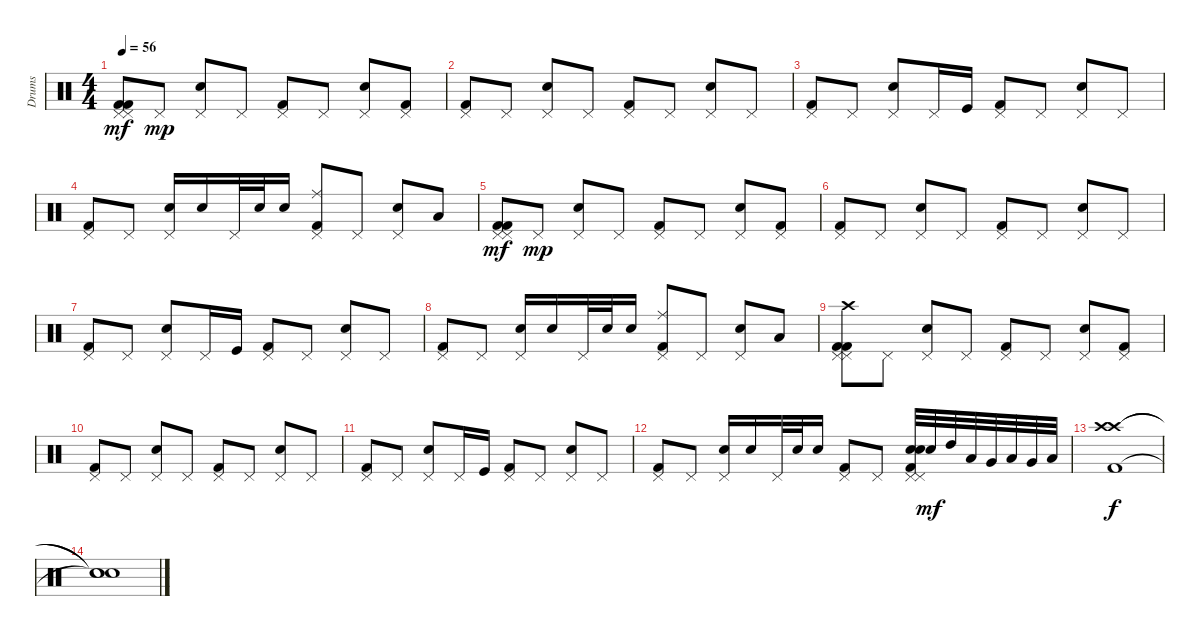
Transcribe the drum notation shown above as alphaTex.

\track ("Drums" "Drums") {instrument percussion}
\staff {score}
\articulation defaults
\ts (4 4)
\tempo 56
\clef neutral
\ks c
("Kick (hit) 2" "Pedal Hi-Hat (hit)" "Pedal Hi-Hat (hit)" "Kick (hit) 2").8{dy mf} "Pedal Hi-Hat (hit)".8{dy mp} ("Pedal Hi-Hat (hit)" "Snare (hit) 2").8 "Pedal Hi-Hat (hit)".8 ("Pedal Hi-Hat (hit)" "Kick (hit) 2").8 "Pedal Hi-Hat (hit)".8 ("Pedal Hi-Hat (hit)" "Snare (hit) 2").8 ("Pedal Hi-Hat (hit)" "Kick (hit) 2").8 |
("Pedal Hi-Hat (hit)" "Kick (hit) 2").8 "Pedal Hi-Hat (hit)".8 ("Pedal Hi-Hat (hit)" "Snare (hit) 2").8 "Pedal Hi-Hat (hit)".8 ("Pedal Hi-Hat (hit)" "Kick (hit) 2").8 "Pedal Hi-Hat (hit)".8 ("Pedal Hi-Hat (hit)" "Snare (hit) 2").8 "Pedal Hi-Hat (hit)".8 |
("Pedal Hi-Hat (hit)" "Kick (hit) 2").8 "Pedal Hi-Hat (hit)".8 ("Pedal Hi-Hat (hit)" "Snare (hit) 2").8 "Pedal Hi-Hat (hit)".16 "Kick (hit)".16 ("Pedal Hi-Hat (hit)" "Kick (hit) 2").8 "Pedal Hi-Hat (hit)".8 ("Pedal Hi-Hat (hit)" "Snare (hit) 2").8 "Pedal Hi-Hat (hit)".8 |
("Pedal Hi-Hat (hit)" "Kick (hit) 2").8 "Pedal Hi-Hat (hit)".8 ("Pedal Hi-Hat (hit)" "Snare (hit) 2").16 "Electric Snare (hit)".16 "Pedal Hi-Hat (hit)".32 "Electric Snare (hit)".32 "Electric Snare (hit)".16 ("Ride (middle)" "Pedal Hi-Hat (hit)" "Kick (hit) 2").8 "Pedal Hi-Hat (hit)".8 ("Pedal Hi-Hat (hit)" "Snare (hit) 2").8 "Low Floor Tom (hit)".8 |
("Kick (hit) 2" "Pedal Hi-Hat (hit)" "Pedal Hi-Hat (hit)" "Kick (hit) 2").8{dy mf} "Pedal Hi-Hat (hit)".8{dy mp} ("Pedal Hi-Hat (hit)" "Snare (hit) 2").8 "Pedal Hi-Hat (hit)".8 ("Pedal Hi-Hat (hit)" "Kick (hit) 2").8 "Pedal Hi-Hat (hit)".8 ("Pedal Hi-Hat (hit)" "Snare (hit) 2").8 ("Pedal Hi-Hat (hit)" "Kick (hit) 2").8 |
("Pedal Hi-Hat (hit)" "Kick (hit) 2").8 "Pedal Hi-Hat (hit)".8 ("Pedal Hi-Hat (hit)" "Snare (hit) 2").8 "Pedal Hi-Hat (hit)".8 ("Pedal Hi-Hat (hit)" "Kick (hit) 2").8 "Pedal Hi-Hat (hit)".8 ("Pedal Hi-Hat (hit)" "Snare (hit) 2").8 "Pedal Hi-Hat (hit)".8 |
("Pedal Hi-Hat (hit)" "Kick (hit) 2").8{volume 9} "Pedal Hi-Hat (hit)".8 ("Pedal Hi-Hat (hit)" "Snare (hit) 2").8 "Pedal Hi-Hat (hit)".16 "Kick (hit)".16 ("Pedal Hi-Hat (hit)" "Kick (hit) 2").8 "Pedal Hi-Hat (hit)".8 ("Pedal Hi-Hat (hit)" "Snare (hit) 2").8 "Pedal Hi-Hat (hit)".8 |
("Pedal Hi-Hat (hit)" "Kick (hit) 2").8 "Pedal Hi-Hat (hit)".8 ("Pedal Hi-Hat (hit)" "Snare (hit) 2").16 "Electric Snare (hit)".16 "Pedal Hi-Hat (hit)".32 "Electric Snare (hit)".32 "Electric Snare (hit)".16 ("Ride (middle)" "Pedal Hi-Hat (hit)" "Kick (hit) 2").8 "Pedal Hi-Hat (hit)".8 ("Pedal Hi-Hat (hit)" "Snare (hit) 2").8 "Low Floor Tom (hit)".8 |
("Kick (hit) 2" "Pedal Hi-Hat (hit)" "Crash high (hit)" "Pedal Hi-Hat (hit)" "Kick (hit) 2").8 "Pedal Hi-Hat (hit)".8 ("Snare (hit) 2" "Pedal Hi-Hat (hit)").8 "Pedal Hi-Hat (hit)".8 ("Kick (hit) 2" "Pedal Hi-Hat (hit)").8 "Pedal Hi-Hat (hit)".8 ("Snare (hit) 2" "Pedal Hi-Hat (hit)").8 ("Kick (hit) 2" "Pedal Hi-Hat (hit)").8 |
("Kick (hit) 2" "Pedal Hi-Hat (hit)").8 "Pedal Hi-Hat (hit)".8 ("Snare (hit) 2" "Pedal Hi-Hat (hit)").8 "Pedal Hi-Hat (hit)".8 ("Kick (hit) 2" "Pedal Hi-Hat (hit)").8 "Pedal Hi-Hat (hit)".8 ("Snare (hit) 2" "Pedal Hi-Hat (hit)").8 "Pedal Hi-Hat (hit)".8 |
("Kick (hit) 2" "Pedal Hi-Hat (hit)").8{volume 0} "Pedal Hi-Hat (hit)".8 ("Snare (hit) 2" "Pedal Hi-Hat (hit)").8 "Pedal Hi-Hat (hit)".16 "Kick (hit)".16 ("Kick (hit) 2" "Pedal Hi-Hat (hit)").8 "Pedal Hi-Hat (hit)".8 ("Snare (hit) 2" "Pedal Hi-Hat (hit)").8 "Pedal Hi-Hat (hit)".8 |
("Kick (hit) 2" "Pedal Hi-Hat (hit)").8 "Pedal Hi-Hat (hit)".8 ("Snare (hit) 2" "Pedal Hi-Hat (hit)").16 "Electric Snare (hit)".16 "Pedal Hi-Hat (hit)".32 "Electric Snare (hit)".32 "Electric Snare (hit)".16 ("Kick (hit) 2" "Pedal Hi-Hat (hit)").8 "Pedal Hi-Hat (hit)".8 ("Snare (hit) 2" "Pedal Hi-Hat (hit)" "Electric Snare (hit)" "Pedal Hi-Hat (hit)" "Kick (hit) 2").32 "Snare (hit) 2".32{dy mf} "High Tom (hit)".32 "Low Tom (hit)".32 "Very Low Tom (hit)".32 "Low Floor Tom (hit)".32 "Very Low Tom (hit)".32 "Low Floor Tom (hit)".32 |
("Crash high (hit)" "Crash high (hit)" "Kick (hit) 2").1{dy f} |
("Snare (hit)"{t} "Snare (hit)"{t} "Snare (hit)"{t}).1
